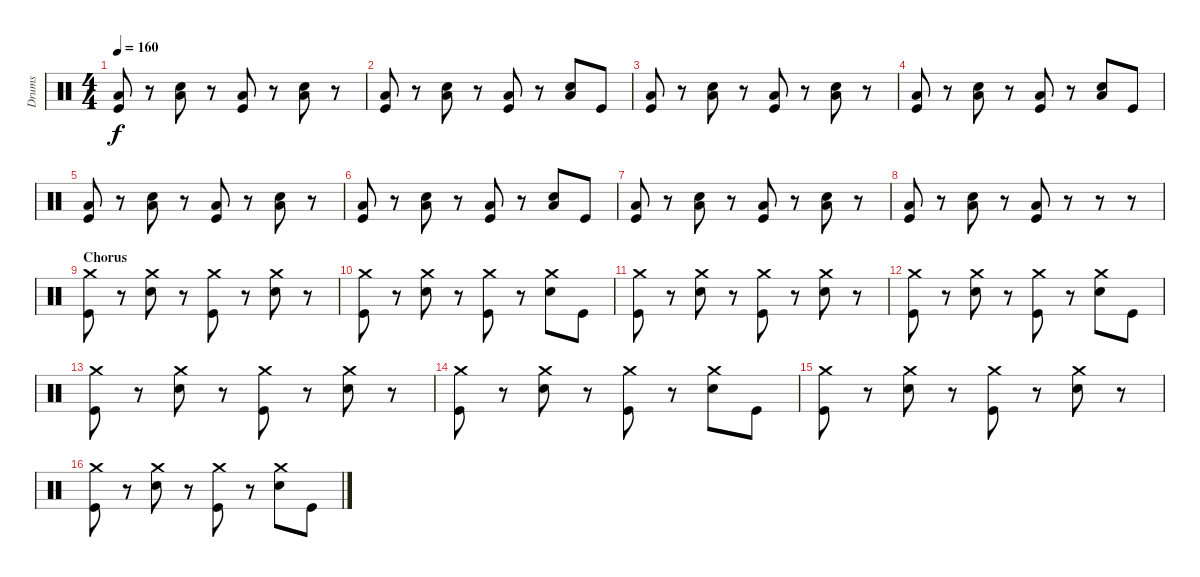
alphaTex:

\track ("Drums" "Drums") {instrument percussion}
\staff {score}
\articulation defaults
\ts (4 4)
\tempo 160
\clef neutral
\ks c
("Low Tom (hit)" "Kick (hit)").8{dy f} r.8 ("Low Tom (hit)" "Electric Snare (hit)").8 r.8 ("Low Tom (hit)" "Kick (hit)").8 r.8 ("Low Tom (hit)" "Electric Snare (hit)").8 r.8 |
("Low Tom (hit)" "Kick (hit)").8 r.8 ("Low Tom (hit)" "Electric Snare (hit)").8 r.8 ("Low Tom (hit)" "Kick (hit)").8 r.8 ("Low Tom (hit)" "Electric Snare (hit)").8 "Kick (hit)".8 |
("Low Tom (hit)" "Kick (hit)").8 r.8 ("Low Tom (hit)" "Electric Snare (hit)").8 r.8 ("Low Tom (hit)" "Kick (hit)").8 r.8 ("Low Tom (hit)" "Electric Snare (hit)").8 r.8 |
("Low Tom (hit)" "Kick (hit)").8 r.8 ("Low Tom (hit)" "Electric Snare (hit)").8 r.8 ("Low Tom (hit)" "Kick (hit)").8 r.8 ("Low Tom (hit)" "Electric Snare (hit)").8 "Kick (hit)".8 |
("Low Tom (hit)" "Kick (hit)").8 r.8 ("Low Tom (hit)" "Electric Snare (hit)").8 r.8 ("Low Tom (hit)" "Kick (hit)").8 r.8 ("Low Tom (hit)" "Electric Snare (hit)").8 r.8 |
("Low Tom (hit)" "Kick (hit)").8 r.8 ("Low Tom (hit)" "Electric Snare (hit)").8 r.8 ("Low Tom (hit)" "Kick (hit)").8 r.8 ("Low Tom (hit)" "Electric Snare (hit)").8 "Kick (hit)".8 |
("Low Tom (hit)" "Kick (hit)").8 r.8 ("Low Tom (hit)" "Electric Snare (hit)").8 r.8 ("Low Tom (hit)" "Kick (hit)").8 r.8 ("Low Tom (hit)" "Electric Snare (hit)").8 r.8 |
("Low Tom (hit)" "Kick (hit)").8 r.8 ("Low Tom (hit)" "Electric Snare (hit)").8 r.8 ("Low Tom (hit)" "Kick (hit)").8 r.8 r.8 r.8 |
\section ("" "Chorus")
("Crash medium (hit)" "Kick (hit)").8 r.8 ("Crash medium (hit)" "Electric Snare (hit)").8 r.8 ("Crash medium (hit)" "Kick (hit)").8 r.8 ("Crash medium (hit)" "Electric Snare (hit)").8 r.8 |
("Crash medium (hit)" "Kick (hit)").8 r.8 ("Crash medium (hit)" "Electric Snare (hit)").8 r.8 ("Crash medium (hit)" "Kick (hit)").8 r.8 ("Crash medium (hit)" "Electric Snare (hit)").8 "Kick (hit)".8 |
("Crash medium (hit)" "Kick (hit)").8 r.8 ("Crash medium (hit)" "Electric Snare (hit)").8 r.8 ("Crash medium (hit)" "Kick (hit)").8 r.8 ("Crash medium (hit)" "Electric Snare (hit)").8 r.8 |
("Crash medium (hit)" "Kick (hit)").8 r.8 ("Crash medium (hit)" "Electric Snare (hit)").8 r.8 ("Crash medium (hit)" "Kick (hit)").8 r.8 ("Crash medium (hit)" "Electric Snare (hit)").8 "Kick (hit)".8 |
("Crash medium (hit)" "Kick (hit)").8 r.8 ("Crash medium (hit)" "Electric Snare (hit)").8 r.8 ("Crash medium (hit)" "Kick (hit)").8 r.8 ("Crash medium (hit)" "Electric Snare (hit)").8 r.8 |
("Crash medium (hit)" "Kick (hit)").8 r.8 ("Crash medium (hit)" "Electric Snare (hit)").8 r.8 ("Crash medium (hit)" "Kick (hit)").8 r.8 ("Crash medium (hit)" "Electric Snare (hit)").8 "Kick (hit)".8 |
("Crash medium (hit)" "Kick (hit)").8 r.8 ("Crash medium (hit)" "Electric Snare (hit)").8 r.8 ("Crash medium (hit)" "Kick (hit)").8 r.8 ("Crash medium (hit)" "Electric Snare (hit)").8 r.8 |
("Crash medium (hit)" "Kick (hit)").8 r.8 ("Crash medium (hit)" "Electric Snare (hit)").8 r.8 ("Crash medium (hit)" "Kick (hit)").8 r.8 ("Crash medium (hit)" "Electric Snare (hit)").8 "Kick (hit)".8
